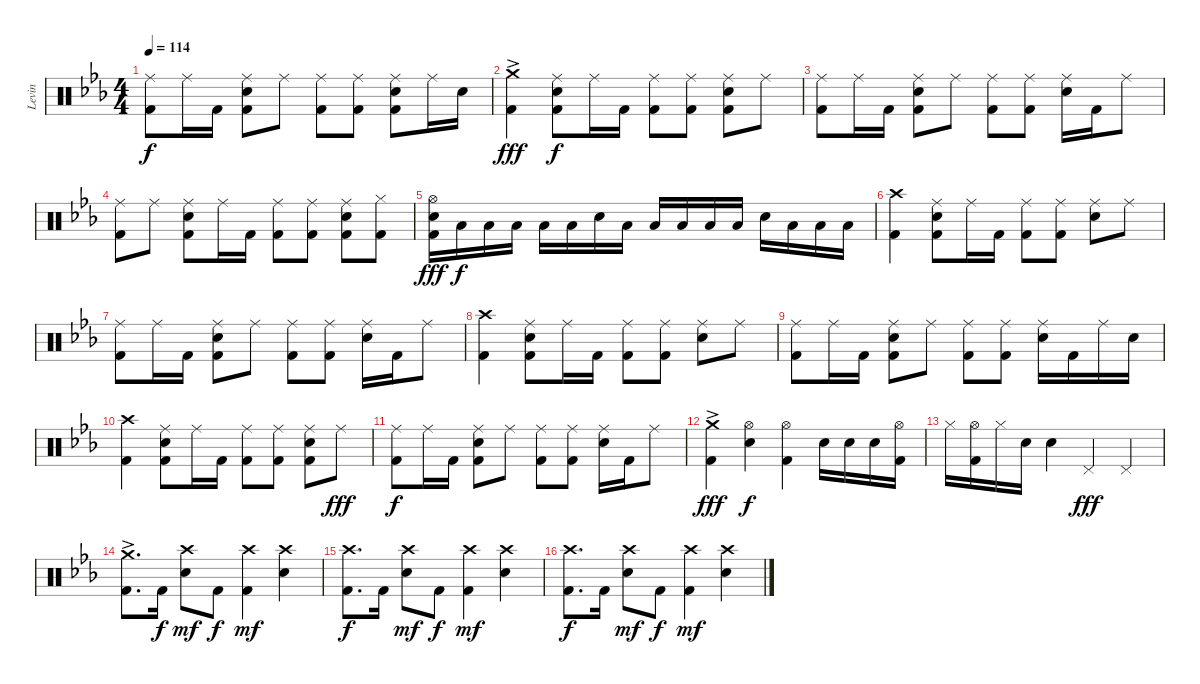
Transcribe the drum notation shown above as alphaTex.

\track ("Levin" "Levin") {instrument percussion}
\staff {score}
\articulation defaults
\ts (4 4)
\tempo 114
\clef neutral
\ks eb
("Ride (middle)" "Kick (hit) 2").8{dy f} "Ride (middle)".16 "Kick (hit) 2".16 ("Ride (middle)" "Electric Snare (hit)" "Kick (hit) 2").8 "Ride (middle)".8 ("Ride (middle)" "Kick (hit) 2").8 ("Ride (middle)" "Kick (hit) 2").8 ("Ride (middle)" "Electric Snare (hit)" "Kick (hit) 2").8 "Ride (middle)".16 "Electric Snare (hit)".16 |
("Crash medium (hit)"{ac} "Kick (hit) 2").4{dy fff} ("Ride (middle)" "Electric Snare (hit)" "Kick (hit) 2").8{dy f} "Ride (middle)".16 "Kick (hit) 2".16 ("Ride (middle)" "Kick (hit) 2").8 ("Ride (middle)" "Kick (hit) 2").8 ("Ride (middle)" "Electric Snare (hit)" "Kick (hit) 2").8 "Ride (middle)".8 |
("Ride (middle)" "Kick (hit) 2").8 "Ride (middle)".16 "Kick (hit) 2".16 ("Ride (middle)" "Electric Snare (hit)" "Kick (hit) 2").8 "Ride (middle)".8 ("Ride (middle)" "Kick (hit) 2").8 ("Ride (middle)" "Kick (hit) 2").8 ("Ride (middle)" "Electric Snare (hit)").16 "Kick (hit) 2".16 "Ride (middle)".8 |
("Ride (middle)" "Kick (hit) 2").8 "Ride (middle)".8 ("Ride (middle)" "Electric Snare (hit)" "Kick (hit) 2").8 "Ride (middle)".16 "Kick (hit) 2".16 ("Ride (middle)" "Kick (hit) 2").8 ("Ride (middle)" "Kick (hit) 2").8 ("Ride (middle)" "Electric Snare (hit)" "Kick (hit) 2").8 ("Hi-Hat (closed)" "Kick (hit) 2").8 |
("Hi-Hat (open)" "Electric Snare (hit)" "Kick (hit) 2").16{dy fff} "Low Floor Tom (hit)".16{dy f} "Low Floor Tom (hit)".16 "Low Floor Tom (hit)".16 "Low Floor Tom (hit)".16 "Low Floor Tom (hit)".16 "Electric Snare (hit)".16 "Low Floor Tom (hit)".16 "Low Floor Tom (hit)".16 "Low Floor Tom (hit)".16 "Low Floor Tom (hit)".16 "Low Floor Tom (hit)".16 "Electric Snare (hit)".16 "Low Floor Tom (hit)".16 "Low Floor Tom (hit)".16 "Low Floor Tom (hit)".16 |
("Crash high (hit)" "Kick (hit) 2").4 ("Ride (middle)" "Electric Snare (hit)" "Kick (hit) 2").8 "Ride (middle)".16 "Kick (hit) 2".16 ("Ride (middle)" "Kick (hit) 2").8 ("Ride (middle)" "Kick (hit) 2").8 ("Ride (middle)" "Electric Snare (hit)").8 "Ride (middle)".8 |
("Ride (middle)" "Kick (hit) 2").8 "Ride (middle)".16 "Kick (hit) 2".16 ("Ride (middle)" "Electric Snare (hit)" "Kick (hit) 2").8 "Ride (middle)".8 ("Ride (middle)" "Kick (hit) 2").8 ("Ride (middle)" "Kick (hit) 2").8 ("Ride (middle)" "Electric Snare (hit)").16 "Kick (hit) 2".16 "Ride (middle)".8 |
("Crash high (hit)" "Kick (hit) 2").4 ("Ride (middle)" "Electric Snare (hit)" "Kick (hit) 2").8 "Ride (middle)".16 "Kick (hit) 2".16 ("Ride (middle)" "Kick (hit) 2").8 ("Ride (middle)" "Kick (hit) 2").8 ("Ride (middle)" "Electric Snare (hit)").8 "Ride (middle)".8 |
("Ride (middle)" "Kick (hit) 2").8 "Ride (middle)".16 "Kick (hit) 2".16 ("Ride (middle)" "Electric Snare (hit)" "Kick (hit) 2").8 "Ride (middle)".8 ("Ride (middle)" "Kick (hit) 2").8 ("Ride (middle)" "Kick (hit) 2").8 ("Ride (middle)" "Electric Snare (hit)").16 "Kick (hit) 2".16 "Ride (middle)".16 "Electric Snare (hit)".16 |
("Crash high (hit)" "Kick (hit) 2").4 ("Ride (middle)" "Electric Snare (hit)" "Kick (hit) 2").8 "Ride (middle)".16 "Kick (hit) 2".16 ("Ride (middle)" "Kick (hit) 2").8 ("Ride (middle)" "Kick (hit) 2").8 ("Ride (middle)" "Electric Snare (hit)" "Kick (hit) 2").8 "Ride (middle)".8{dy fff} |
("Ride (middle)" "Kick (hit) 2").8{dy f} "Ride (middle)".16 "Kick (hit) 2".16 ("Ride (middle)" "Electric Snare (hit)" "Kick (hit) 2").8 "Ride (middle)".8 ("Ride (middle)" "Kick (hit) 2").8 ("Ride (middle)" "Kick (hit) 2").8 ("Ride (middle)" "Electric Snare (hit)").16 "Kick (hit) 2".16 "Ride (middle)".8 |
("Crash medium (hit)"{ac} "Kick (hit) 2").4{dy fff} ("Hi-Hat (open)" "Electric Snare (hit)").4{dy f} ("Hi-Hat (open)" "Kick (hit) 2").4 "Electric Snare (hit)".16 "Electric Snare (hit)".16 "Electric Snare (hit)".16 ("Hi-Hat (open)" "Kick (hit) 2").16 |
"Hi-Hat (closed)".16 ("Hi-Hat (open)" "Kick (hit) 2").16 "Hi-Hat (closed)".16 "Electric Snare (hit)".16 "Electric Snare (hit)".4 "Pedal Hi-Hat (hit)".4{dy fff} "Pedal Hi-Hat (hit)".4 |
("Crash medium (hit)"{ac} "Kick (hit) 2").8{d} "Kick (hit) 2".16{dy f} ("Crash high (hit)" "Electric Snare (hit)").8{dy mf} "Kick (hit) 2".8{dy f} ("Crash high (hit)" "Kick (hit) 2").4{dy mf} ("Crash high (hit)" "Electric Snare (hit)").4 |
("Crash high (hit)" "Kick (hit) 2").8{d dy f} "Kick (hit) 2".16 ("Crash high (hit)" "Electric Snare (hit)").8{dy mf} "Kick (hit) 2".8{dy f} ("Crash high (hit)" "Kick (hit) 2").4{dy mf} ("Crash high (hit)" "Electric Snare (hit)").4 |
("Crash high (hit)" "Kick (hit) 2").8{d dy f} "Kick (hit) 2".16 ("Crash high (hit)" "Electric Snare (hit)").8{dy mf} "Kick (hit) 2".8{dy f} ("Crash high (hit)" "Kick (hit) 2").4{dy mf} ("Crash high (hit)" "Electric Snare (hit)").4
